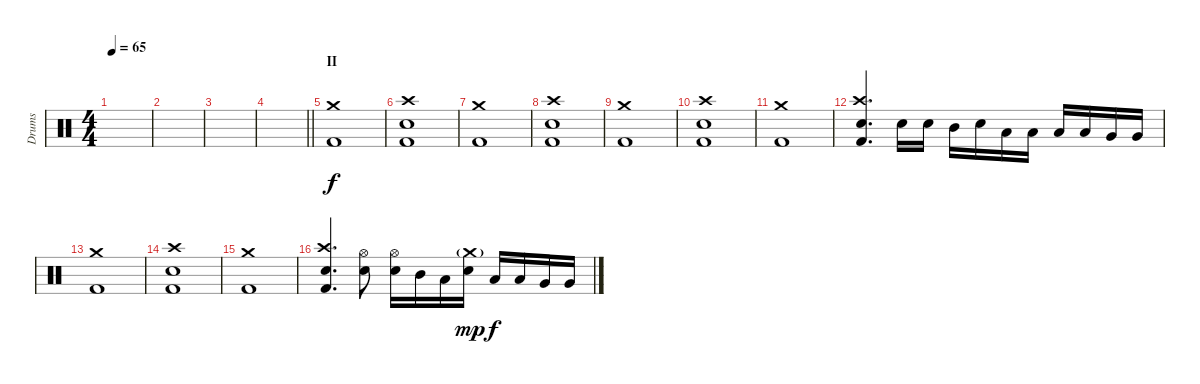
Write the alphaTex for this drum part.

\track ("Drums" "Drums") {instrument percussion}
\staff {score}
\articulation defaults
\ts (4 4)
\tempo 65
\clef neutral
\ks c
|
|
|
\barLineRight lightlight
|
\section ("" "II")
("Crash medium (hit)" "Kick (hit) 2").1 |
("Crash high (hit)" "Electric Snare (hit)" "Kick (hit) 2").1 |
("Crash medium (hit)" "Kick (hit) 2").1 |
("Crash high (hit)" "Electric Snare (hit)" "Kick (hit) 2").1 |
("Crash medium (hit)" "Kick (hit) 2").1 |
("Crash high (hit)" "Electric Snare (hit)" "Kick (hit) 2").1 |
("Crash medium (hit)" "Kick (hit) 2").1 |
("Crash high (hit)" "Electric Snare (hit)" "Kick (hit) 2").4{d} "Electric Snare (hit)".16 "Electric Snare (hit)".16 "Mid Tom (hit)".16 "Electric Snare (hit)".16 "Low Tom (hit)".16 "Low Tom (hit)".16 "Low Tom (hit)".16 "Low Tom (hit)".16 "Very Low Tom (hit)".16 "Very Low Tom (hit)".16 |
("Crash medium (hit)" "Kick (hit) 2").1 |
("Crash high (hit)" "Electric Snare (hit)" "Kick (hit) 2").1 |
("Crash medium (hit)" "Kick (hit) 2").1 |
("Crash high (hit)" "Electric Snare (hit)" "Kick (hit) 2").4{d} ("Hi-Hat (open)" "Electric Snare (hit)").8 ("Hi-Hat (open)" "Electric Snare (hit)").16 "Mid Tom (hit)".16 "Low Tom (hit)".16 ("Crash medium (hit)"{g} "Electric Snare (hit)").16{dy mp} "Low Tom (hit)".16{dy f} "Low Tom (hit)".16 "Very Low Tom (hit)".16 "Very Low Tom (hit)".16
